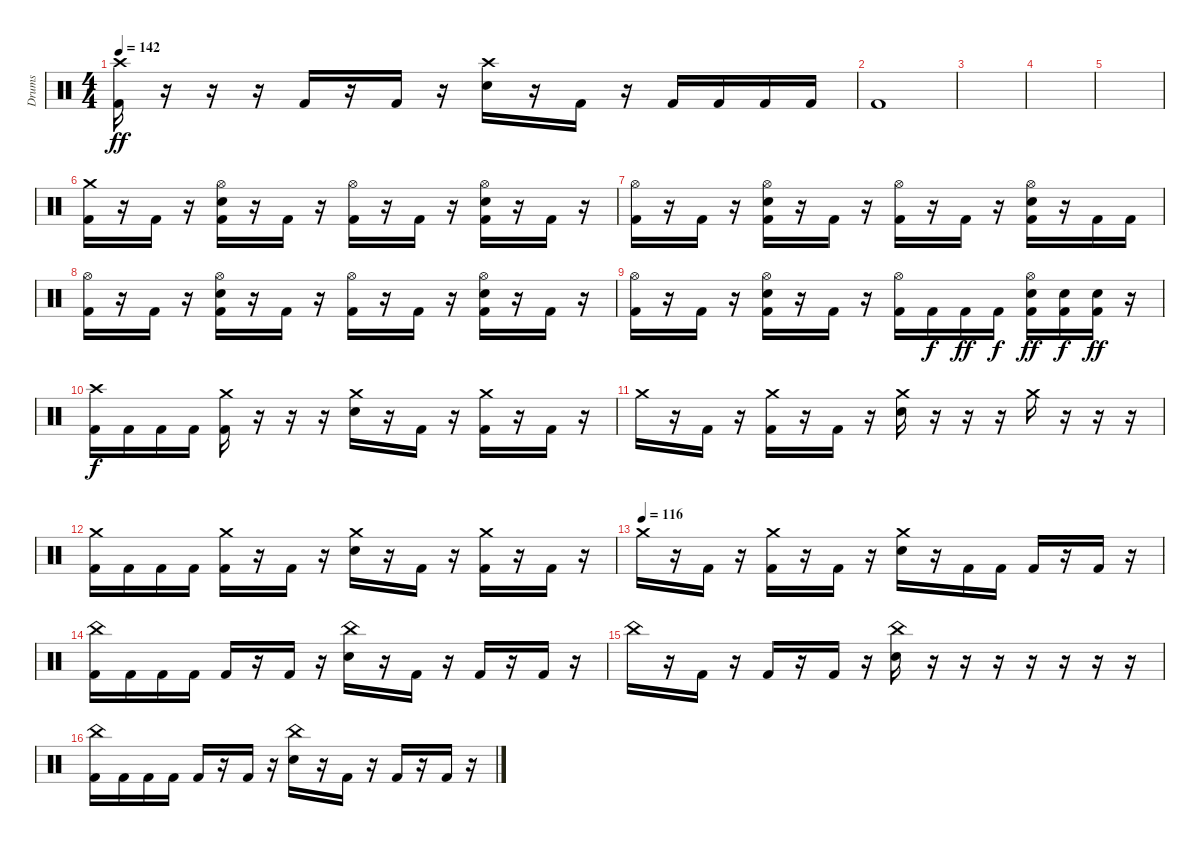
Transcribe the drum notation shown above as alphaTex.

\track ("Drums" "Drums") {instrument percussion}
\staff {score}
\articulation defaults
\ts (4 4)
\tempo 142
\clef neutral
\ks c
("Crash high (hit)" "Kick (hit) 2").16{dy ff} r.16 r.16 r.16 "Kick (hit) 2".16 r.16 "Kick (hit) 2".16 r.16 ("Crash high (hit)" "Electric Snare (hit)").16 r.16 "Kick (hit) 2".16 r.16 "Kick (hit) 2".16 "Kick (hit) 2".16 "Kick (hit) 2".16 "Kick (hit) 2".16 |
"Kick (hit) 2".1 |
|
|
|
("Crash medium (hit)" "Kick (hit) 2").16 r.16 "Kick (hit) 2".16 r.16 ("Hi-Hat (open)" "Electric Snare (hit)" "Kick (hit) 2").16 r.16 "Kick (hit) 2".16 r.16 ("Hi-Hat (open)" "Kick (hit) 2").16 r.16 "Kick (hit) 2".16 r.16 ("Hi-Hat (open)" "Electric Snare (hit)" "Kick (hit) 2").16 r.16 "Kick (hit) 2".16 r.16 |
("Hi-Hat (open)" "Kick (hit) 2").16 r.16 "Kick (hit) 2".16 r.16 ("Hi-Hat (open)" "Electric Snare (hit)" "Kick (hit) 2").16 r.16 "Kick (hit) 2".16 r.16 ("Hi-Hat (open)" "Kick (hit) 2").16 r.16 "Kick (hit) 2".16 r.16 ("Hi-Hat (open)" "Electric Snare (hit)" "Kick (hit) 2").16 r.16 "Kick (hit) 2".16 "Kick (hit) 2".16 |
("Hi-Hat (open)" "Kick (hit) 2").16 r.16 "Kick (hit) 2".16 r.16 ("Hi-Hat (open)" "Electric Snare (hit)" "Kick (hit) 2").16 r.16 "Kick (hit) 2".16 r.16 ("Hi-Hat (open)" "Kick (hit) 2").16 r.16 "Kick (hit) 2".16 r.16 ("Hi-Hat (open)" "Electric Snare (hit)" "Kick (hit) 2").16 r.16 "Kick (hit) 2".16 r.16 |
("Hi-Hat (open)" "Kick (hit) 2").16 r.16 "Kick (hit) 2".16 r.16 ("Hi-Hat (open)" "Electric Snare (hit)" "Kick (hit) 2").16 r.16 "Kick (hit) 2".16 r.16 ("Hi-Hat (open)" "Kick (hit) 2").16 "Kick (hit) 2".16{dy f} "Kick (hit) 2".16{dy ff} "Kick (hit) 2".16{dy f} ("Hi-Hat (open)" "Electric Snare (hit)" "Kick (hit) 2").16{dy ff} ("Electric Snare (hit)" "Kick (hit) 2").16{dy f} ("Electric Snare (hit)" "Kick (hit) 2").16{dy ff} r.16 |
("Crash high (hit)" "Kick (hit) 2").16{dy f} "Kick (hit) 2".16 "Kick (hit) 2".16 "Kick (hit) 2".16 ("Crash medium (hit)" "Kick (hit) 2").16 r.16 r.16 r.16 ("Crash medium (hit)" "Electric Snare (hit)").16 r.16 "Kick (hit) 2".16 r.16 ("Crash medium (hit)" "Kick (hit) 2").16 r.16 "Kick (hit) 2".16 r.16 |
"Crash medium (hit)".16 r.16 "Kick (hit) 2".16 r.16 ("Crash medium (hit)" "Kick (hit) 2").16 r.16 "Kick (hit) 2".16 r.16 ("Crash medium (hit)" "Electric Snare (hit)").16 r.16 r.16 r.16 "Crash medium (hit)".16 r.16 r.16 r.16 |
("Crash medium (hit)" "Kick (hit) 2").16 "Kick (hit) 2".16 "Kick (hit) 2".16 "Kick (hit) 2".16 ("Crash medium (hit)" "Kick (hit) 2").16 r.16 "Kick (hit) 2".16 r.16 ("Crash medium (hit)" "Electric Snare (hit)").16 r.16 "Kick (hit) 2".16 r.16 ("Crash medium (hit)" "Kick (hit) 2").16 r.16 "Kick (hit) 2".16 r.16 |
\tempo (116)
"Crash medium (hit)".16 r.16 "Kick (hit) 2".16 r.16 ("Crash medium (hit)" "Kick (hit) 2").16 r.16 "Kick (hit) 2".16 r.16 ("Crash medium (hit)" "Electric Snare (hit)").16 r.16 "Kick (hit) 2".16 "Kick (hit) 2".16 "Kick (hit) 2".16 r.16 "Kick (hit) 2".16 r.16 |
("China (hit)" "Kick (hit) 2").16 "Kick (hit) 2".16 "Kick (hit) 2".16 "Kick (hit) 2".16 "Kick (hit) 2".16 r.16 "Kick (hit) 2".16 r.16 ("China (hit)" "Electric Snare (hit)").16 r.16 "Kick (hit) 2".16 r.16 "Kick (hit) 2".16 r.16 "Kick (hit) 2".16 r.16 |
"China (hit)".16 r.16 "Kick (hit) 2".16 r.16 "Kick (hit) 2".16 r.16 "Kick (hit) 2".16 r.16 ("China (hit)" "Electric Snare (hit)").16 r.16 r.16 r.16 r.16 r.16 r.16 r.16 |
("China (hit)" "Kick (hit) 2").16 "Kick (hit) 2".16 "Kick (hit) 2".16 "Kick (hit) 2".16 "Kick (hit) 2".16 r.16 "Kick (hit) 2".16 r.16 ("China (hit)" "Electric Snare (hit)").16 r.16 "Kick (hit) 2".16 r.16 "Kick (hit) 2".16 r.16 "Kick (hit) 2".16 r.16
